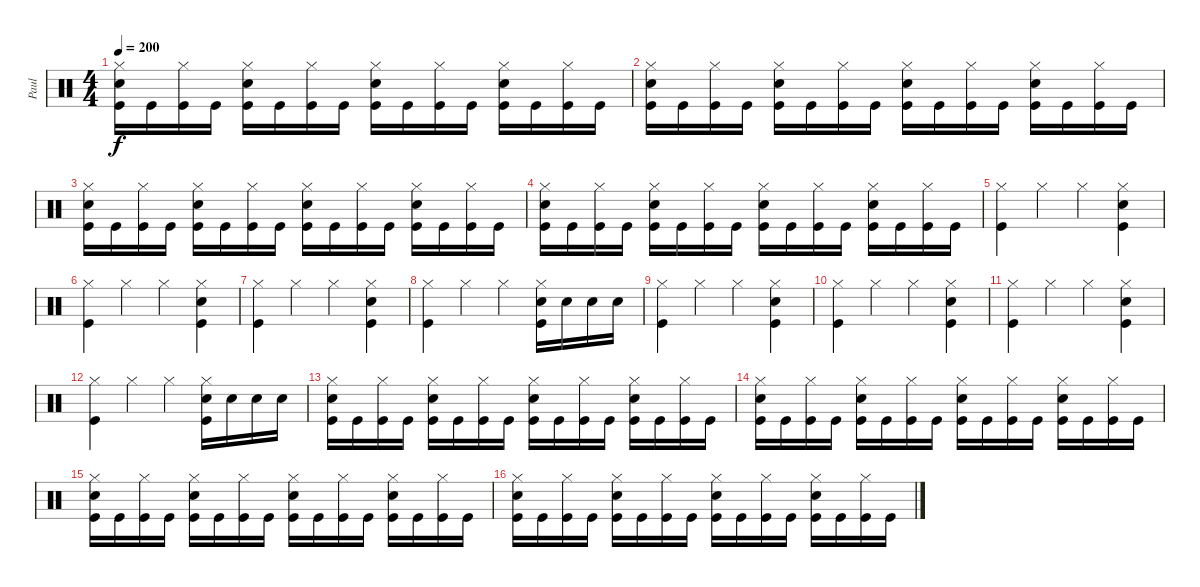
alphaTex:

\track ("Paul" "Paul") {instrument percussion}
\staff {score}
\articulation defaults
\ts (4 4)
\tempo 200
\clef neutral
\ks c
("Kick (hit)" "Snare (hit) 2" "Hi-Hat (closed)").16{dy f} "Kick (hit)".16 ("Kick (hit)" "Hi-Hat (closed)").16 "Kick (hit)".16 ("Kick (hit)" "Snare (hit) 2" "Hi-Hat (closed)").16 "Kick (hit)".16 ("Kick (hit)" "Hi-Hat (closed)").16 "Kick (hit)".16 ("Kick (hit)" "Snare (hit) 2" "Hi-Hat (closed)").16 "Kick (hit)".16 ("Kick (hit)" "Hi-Hat (closed)").16 "Kick (hit)".16 ("Kick (hit)" "Snare (hit) 2" "Hi-Hat (closed)").16 "Kick (hit)".16 ("Kick (hit)" "Hi-Hat (closed)").16 "Kick (hit)".16 |
("Kick (hit)" "Snare (hit) 2" "Hi-Hat (closed)").16 "Kick (hit)".16 ("Kick (hit)" "Hi-Hat (closed)").16 "Kick (hit)".16 ("Kick (hit)" "Snare (hit) 2" "Hi-Hat (closed)").16 "Kick (hit)".16 ("Kick (hit)" "Hi-Hat (closed)").16 "Kick (hit)".16 ("Kick (hit)" "Snare (hit) 2" "Hi-Hat (closed)").16 "Kick (hit)".16 ("Kick (hit)" "Hi-Hat (closed)").16 "Kick (hit)".16 ("Kick (hit)" "Snare (hit) 2" "Hi-Hat (closed)").16 "Kick (hit)".16 ("Kick (hit)" "Hi-Hat (closed)").16 "Kick (hit)".16 |
("Kick (hit)" "Snare (hit) 2" "Hi-Hat (closed)").16 "Kick (hit)".16 ("Kick (hit)" "Hi-Hat (closed)").16 "Kick (hit)".16 ("Kick (hit)" "Snare (hit) 2" "Hi-Hat (closed)").16 "Kick (hit)".16 ("Kick (hit)" "Hi-Hat (closed)").16 "Kick (hit)".16 ("Kick (hit)" "Snare (hit) 2" "Hi-Hat (closed)").16 "Kick (hit)".16 ("Kick (hit)" "Hi-Hat (closed)").16 "Kick (hit)".16 ("Kick (hit)" "Snare (hit) 2" "Hi-Hat (closed)").16 "Kick (hit)".16 ("Kick (hit)" "Hi-Hat (closed)").16 "Kick (hit)".16 |
("Kick (hit)" "Snare (hit) 2" "Hi-Hat (closed)").16 "Kick (hit)".16 ("Kick (hit)" "Hi-Hat (closed)").16 "Kick (hit)".16 ("Kick (hit)" "Snare (hit) 2" "Hi-Hat (closed)").16 "Kick (hit)".16 ("Kick (hit)" "Hi-Hat (closed)").16 "Kick (hit)".16 ("Kick (hit)" "Snare (hit) 2" "Hi-Hat (closed)").16 "Kick (hit)".16 ("Kick (hit)" "Hi-Hat (closed)").16 "Kick (hit)".16 ("Kick (hit)" "Snare (hit) 2" "Hi-Hat (closed)").16 "Kick (hit)".16 ("Kick (hit)" "Hi-Hat (closed)").16 "Kick (hit)".16 |
("Hi-Hat (closed)" "Kick (hit)").4 "Hi-Hat (closed)".4 "Hi-Hat (closed)".4 ("Hi-Hat (closed)" "Snare (hit) 2" "Kick (hit)").4 |
("Hi-Hat (closed)" "Kick (hit)").4 "Hi-Hat (closed)".4 "Hi-Hat (closed)".4 ("Hi-Hat (closed)" "Snare (hit) 2" "Kick (hit)").4 |
("Hi-Hat (closed)" "Kick (hit)").4 "Hi-Hat (closed)".4 "Hi-Hat (closed)".4 ("Hi-Hat (closed)" "Snare (hit) 2" "Kick (hit)").4 |
("Hi-Hat (closed)" "Kick (hit)").4 "Hi-Hat (closed)".4 "Hi-Hat (closed)".4 ("Snare (hit) 2" "Hi-Hat (closed)" "Kick (hit)").16 "Snare (hit) 2".16 "Snare (hit) 2".16 "Snare (hit) 2".16 |
("Hi-Hat (closed)" "Kick (hit)").4 "Hi-Hat (closed)".4 "Hi-Hat (closed)".4 ("Hi-Hat (closed)" "Snare (hit) 2" "Kick (hit)").4 |
("Hi-Hat (closed)" "Kick (hit)").4 "Hi-Hat (closed)".4 "Hi-Hat (closed)".4 ("Hi-Hat (closed)" "Snare (hit) 2" "Kick (hit)").4 |
("Hi-Hat (closed)" "Kick (hit)").4 "Hi-Hat (closed)".4 "Hi-Hat (closed)".4 ("Hi-Hat (closed)" "Snare (hit) 2" "Kick (hit)").4 |
("Hi-Hat (closed)" "Kick (hit)").4 "Hi-Hat (closed)".4 "Hi-Hat (closed)".4 ("Snare (hit) 2" "Hi-Hat (closed)" "Kick (hit)").16 "Snare (hit) 2".16 "Snare (hit) 2".16 "Snare (hit) 2".16 |
("Kick (hit)" "Snare (hit) 2" "Hi-Hat (closed)").16 "Kick (hit)".16 ("Kick (hit)" "Hi-Hat (closed)").16 "Kick (hit)".16 ("Kick (hit)" "Snare (hit) 2" "Hi-Hat (closed)").16 "Kick (hit)".16 ("Kick (hit)" "Hi-Hat (closed)").16 "Kick (hit)".16 ("Kick (hit)" "Snare (hit) 2" "Hi-Hat (closed)").16 "Kick (hit)".16 ("Kick (hit)" "Hi-Hat (closed)").16 "Kick (hit)".16 ("Kick (hit)" "Snare (hit) 2" "Hi-Hat (closed)").16 "Kick (hit)".16 ("Kick (hit)" "Hi-Hat (closed)").16 "Kick (hit)".16 |
("Kick (hit)" "Snare (hit) 2" "Hi-Hat (closed)").16 "Kick (hit)".16 ("Kick (hit)" "Hi-Hat (closed)").16 "Kick (hit)".16 ("Kick (hit)" "Snare (hit) 2" "Hi-Hat (closed)").16 "Kick (hit)".16 ("Kick (hit)" "Hi-Hat (closed)").16 "Kick (hit)".16 ("Kick (hit)" "Snare (hit) 2" "Hi-Hat (closed)").16 "Kick (hit)".16 ("Kick (hit)" "Hi-Hat (closed)").16 "Kick (hit)".16 ("Kick (hit)" "Snare (hit) 2" "Hi-Hat (closed)").16 "Kick (hit)".16 ("Kick (hit)" "Hi-Hat (closed)").16 "Kick (hit)".16 |
("Kick (hit)" "Snare (hit) 2" "Hi-Hat (closed)").16 "Kick (hit)".16 ("Kick (hit)" "Hi-Hat (closed)").16 "Kick (hit)".16 ("Kick (hit)" "Snare (hit) 2" "Hi-Hat (closed)").16 "Kick (hit)".16 ("Kick (hit)" "Hi-Hat (closed)").16 "Kick (hit)".16 ("Kick (hit)" "Snare (hit) 2" "Hi-Hat (closed)").16 "Kick (hit)".16 ("Kick (hit)" "Hi-Hat (closed)").16 "Kick (hit)".16 ("Kick (hit)" "Snare (hit) 2" "Hi-Hat (closed)").16 "Kick (hit)".16 ("Kick (hit)" "Hi-Hat (closed)").16 "Kick (hit)".16 |
("Kick (hit)" "Snare (hit) 2" "Hi-Hat (closed)").16 "Kick (hit)".16 ("Kick (hit)" "Hi-Hat (closed)").16 "Kick (hit)".16 ("Kick (hit)" "Snare (hit) 2" "Hi-Hat (closed)").16 "Kick (hit)".16 ("Kick (hit)" "Hi-Hat (closed)").16 "Kick (hit)".16 ("Kick (hit)" "Snare (hit) 2" "Hi-Hat (closed)").16 "Kick (hit)".16 ("Kick (hit)" "Hi-Hat (closed)").16 "Kick (hit)".16 ("Kick (hit)" "Snare (hit) 2" "Hi-Hat (closed)").16 "Kick (hit)".16 ("Kick (hit)" "Hi-Hat (closed)").16 "Kick (hit)".16
